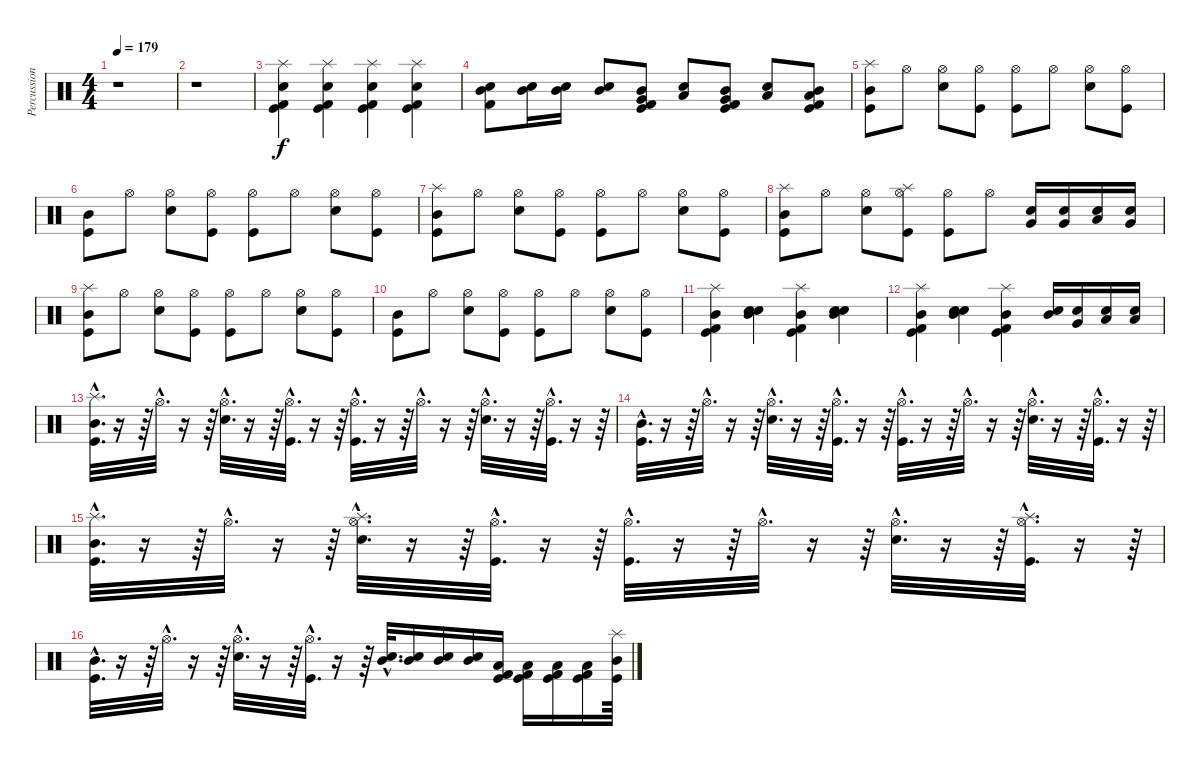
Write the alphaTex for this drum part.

\track ("Percussion" "Percussion") {instrument percussion}
\staff {score}
\articulation defaults
\ts (4 4)
\tempo 179
\clef neutral
\ks c
r.1{dy f} |
r.1 |
("Splash (hit)" "Snare (hit) 2" "Kick (hit) 2" "Kick (hit)").4 ("Splash (hit)" "Snare (hit) 2" "Kick (hit) 2" "Kick (hit)").4 ("Splash (hit)" "Snare (hit) 2" "Kick (hit) 2" "Kick (hit)").4 ("Splash (hit)" "Snare (hit) 2" "Kick (hit) 2" "Kick (hit)").4 |
("Mid Tom (hit)" "Kick (hit) 2" "Snare (hit) 2").8 ("Mid Tom (hit)" "Snare (hit) 2").16 ("Mid Tom (hit)" "Snare (hit) 2").16 ("Mid Tom (hit)" "Snare (hit) 2").8 ("Mid Tom (hit)" "Kick (hit) 2" "Kick (hit)" "Very Low Tom (hit)").8 ("Snare (hit) 2" "Low Floor Tom (hit)").8 ("Mid Tom (hit)" "Kick (hit)" "Kick (hit) 2" "Very Low Tom (hit)").8 ("Snare (hit) 2" "Low Tom (hit)").8 ("Kick (hit)" "Kick (hit) 2" "Mid Tom (hit)" "Low Tom (hit)").8 |
("Splash (hit)" "Mid Tom (hit)" "Kick (hit)").8 "Hi-Hat (open)".8 ("Hi-Hat (open)" "Snare (hit) 2").8 ("Hi-Hat (open)" "Kick (hit)").8 ("Hi-Hat (open)" "Kick (hit)").8 "Hi-Hat (open)".8 ("Hi-Hat (open)" "Snare (hit) 2").8 ("Hi-Hat (open)" "Kick (hit)").8 |
("Mid Tom (hit)" "Kick (hit)").8 "Hi-Hat (open)".8 ("Hi-Hat (open)" "Snare (hit) 2").8 ("Hi-Hat (open)" "Kick (hit)").8 ("Hi-Hat (open)" "Kick (hit)").8 "Hi-Hat (open)".8 ("Hi-Hat (open)" "Snare (hit) 2").8 ("Hi-Hat (open)" "Kick (hit)").8 |
("Splash (hit)" "Mid Tom (hit)" "Kick (hit)").8 "Hi-Hat (open)".8 ("Hi-Hat (open)" "Snare (hit) 2").8 ("Hi-Hat (open)" "Kick (hit)").8 ("Hi-Hat (open)" "Kick (hit)").8 "Hi-Hat (open)".8 ("Hi-Hat (open)" "Snare (hit) 2").8 ("Hi-Hat (open)" "Kick (hit)").8 |
("Splash (hit)" "Mid Tom (hit)" "Kick (hit)").8 "Hi-Hat (open)".8 ("Hi-Hat (open)" "Snare (hit) 2").8 ("Splash (hit)" "Hi-Hat (open)" "Kick (hit)").8 ("Hi-Hat (open)" "Kick (hit)").8 "Hi-Hat (open)".8 ("Snare (hit) 2" "Very Low Tom (hit)").16 ("Snare (hit) 2" "Very Low Tom (hit)").16 ("Snare (hit) 2" "Low Tom (hit)").16 ("Snare (hit) 2" "Very Low Tom (hit)").16 |
("Splash (hit)" "Mid Tom (hit)" "Kick (hit)").8 "Hi-Hat (open)".8 ("Hi-Hat (open)" "Snare (hit) 2").8 ("Hi-Hat (open)" "Kick (hit)").8 ("Hi-Hat (open)" "Kick (hit)").8 "Hi-Hat (open)".8 ("Hi-Hat (open)" "Snare (hit) 2").8 ("Hi-Hat (open)" "Kick (hit)").8 |
("Mid Tom (hit)" "Kick (hit)").8 "Hi-Hat (open)".8 ("Hi-Hat (open)" "Snare (hit) 2").8 ("Hi-Hat (open)" "Kick (hit)").8 ("Hi-Hat (open)" "Kick (hit)").8 "Hi-Hat (open)".8 ("Hi-Hat (open)" "Snare (hit) 2").8 ("Hi-Hat (open)" "Kick (hit)").8 |
("Mid Tom (hit)" "Kick (hit)" "Splash (hit)" "Kick (hit) 2").4 ("Mid Tom (hit)" "Snare (hit) 2" "Electric Snare (hit)").4 ("Mid Tom (hit)" "Kick (hit)" "Splash (hit)" "Kick (hit) 2").4 ("Mid Tom (hit)" "Snare (hit) 2" "Electric Snare (hit)").4 |
("Mid Tom (hit)" "Kick (hit)" "Splash (hit)" "Kick (hit) 2").4 ("Mid Tom (hit)" "Snare (hit) 2" "Electric Snare (hit)").4 ("Mid Tom (hit)" "Kick (hit)" "Splash (hit)" "Kick (hit) 2").4 ("Electric Snare (hit)" "Mid Tom (hit)").16 ("Electric Snare (hit)" "Very Low Tom (hit)").16 ("Electric Snare (hit)" "Low Tom (hit)").16 ("Electric Snare (hit)" "Low Tom (hit)").16 |
("Splash (hit)"{hac} "Mid Tom (hit)"{hac} "Kick (hit)"{hac}).32{d} r.16 r.64 "Hi-Hat (open)"{hac}.32{d} r.16 r.64 ("Hi-Hat (open)"{hac} "Snare (hit) 2"{hac}).32{d} r.16 r.64 ("Hi-Hat (open)"{hac} "Kick (hit)"{hac}).32{d} r.16 r.64 ("Hi-Hat (open)"{hac} "Kick (hit)"{hac}).32{d} r.16 r.64 "Hi-Hat (open)"{hac}.32{d} r.16 r.64 ("Hi-Hat (open)"{hac} "Snare (hit) 2"{hac}).32{d} r.16 r.64 ("Hi-Hat (open)"{hac} "Kick (hit)"{hac}).32{d} r.16 r.64 |
("Mid Tom (hit)"{hac} "Kick (hit)"{hac}).32{d} r.16 r.64 "Hi-Hat (open)"{hac}.32{d} r.16 r.64 ("Hi-Hat (open)"{hac} "Snare (hit) 2"{hac}).32{d} r.16 r.64 ("Hi-Hat (open)"{hac} "Kick (hit)"{hac}).32{d} r.16 r.64 ("Hi-Hat (open)"{hac} "Kick (hit)"{hac}).32{d} r.16 r.64 "Hi-Hat (open)"{hac}.32{d} r.16 r.64 ("Hi-Hat (open)"{hac} "Snare (hit) 2"{hac}).32{d} r.16 r.64 ("Hi-Hat (open)"{hac} "Kick (hit)"{hac}).32{d} r.16 r.64 |
("Splash (hit)"{hac} "Mid Tom (hit)"{hac} "Kick (hit)"{hac}).32{d} r.16 r.64 "Hi-Hat (open)"{hac}.32{d} r.16 r.64 ("Splash (hit)"{hac} "Hi-Hat (open)"{hac} "Snare (hit) 2"{hac}).32{d} r.16 r.64 ("Hi-Hat (open)"{hac} "Kick (hit)"{hac}).32{d} r.16 r.64 ("Hi-Hat (open)"{hac} "Kick (hit)"{hac}).32{d} r.16 r.64 "Hi-Hat (open)"{hac}.32{d} r.16 r.64 ("Hi-Hat (open)"{hac} "Snare (hit) 2"{hac}).32{d} r.16 r.64 ("Splash (hit)"{hac} "Hi-Hat (open)"{hac} "Kick (hit)"{hac}).32{d} r.16 r.64 |
("Mid Tom (hit)"{hac} "Kick (hit)"{hac}).32{d} r.16 r.64 "Hi-Hat (open)"{hac}.32{d} r.16 r.64 ("Hi-Hat (open)"{hac} "Snare (hit) 2"{hac}).32{d} r.16 r.64 ("Hi-Hat (open)"{hac} "Kick (hit)"{hac}).32{d} r.16 r.64 ("Snare (hit) 2"{hac} "Mid Tom (hit)"{hac}).32{d} ("Snare (hit) 2" "Mid Tom (hit)").16 ("Snare (hit) 2" "Mid Tom (hit)").16 ("Snare (hit) 2" "Mid Tom (hit)").16 ("Kick (hit)" "Low Floor Tom (hit)" "Kick (hit) 2").16 ("Kick (hit)" "Low Floor Tom (hit)" "Kick (hit) 2").16 ("Kick (hit)" "Low Floor Tom (hit)" "Kick (hit) 2").16 ("Kick (hit)" "Low Floor Tom (hit)" "Kick (hit) 2").16 ("Splash (hit)" "Mid Tom (hit)" "Kick (hit)").64
